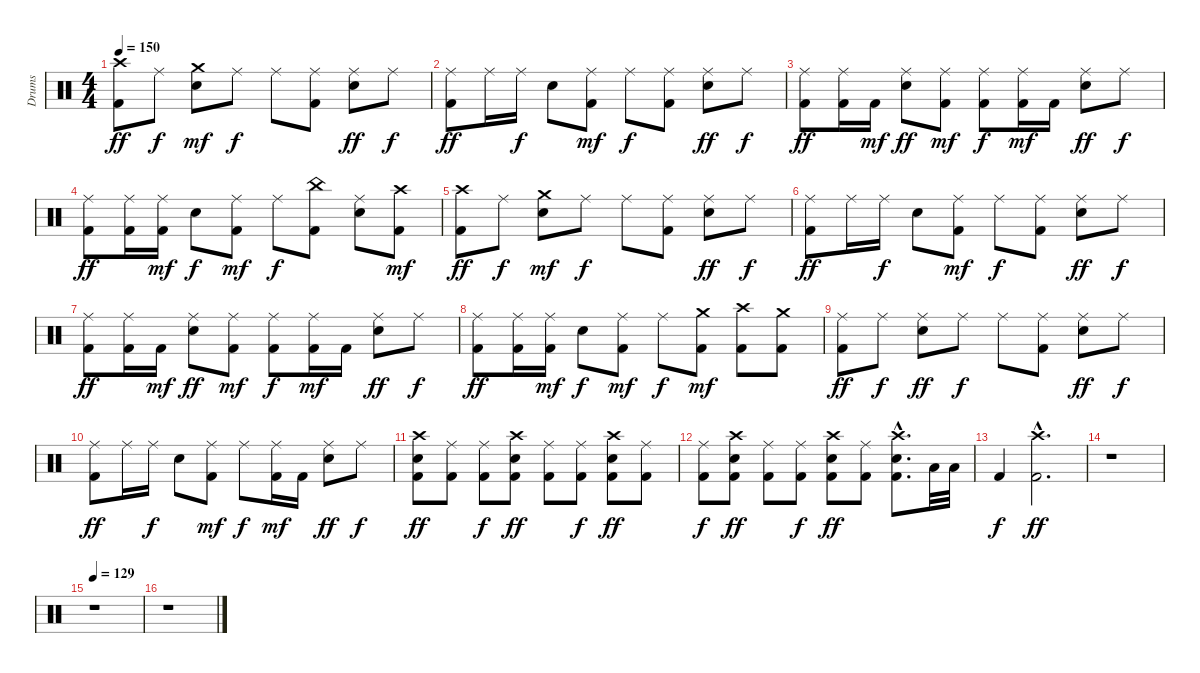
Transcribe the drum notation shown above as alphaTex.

\track ("Drums" "Drums") {instrument percussion}
\staff {score}
\articulation defaults
\ts (4 4)
\tempo 150
\clef neutral
\ks c
("Crash high (hit)" "Kick (hit) 2").8{dy ff} "Ride (middle)".8{dy f} ("Crash medium (hit)" "Snare (hit) 2").8{dy mf} "Ride (middle)".8{dy f} "Ride (middle)".8 ("Ride (middle)" "Kick (hit) 2").8 ("Ride (middle)" "Snare (hit) 2").8{dy ff} "Ride (middle)".8{dy f} |
("Ride (middle)" "Kick (hit) 2").8{dy ff} "Ride (middle)".16 "Ride (middle)".16{dy f} "Snare (hit) 2".8 ("Ride (middle)" "Kick (hit) 2").8{dy mf} "Ride (middle)".8{dy f} ("Ride (middle)" "Kick (hit) 2").8 ("Ride (middle)" "Snare (hit) 2").8{dy ff} "Ride (middle)".8{dy f} |
("Ride (middle)" "Kick (hit) 2").8{dy ff} ("Kick (hit) 2" "Ride (middle)").16 "Kick (hit) 2".16{dy mf} ("Ride (middle)" "Snare (hit) 2").8{dy ff} ("Kick (hit) 2" "Ride (middle)").8{dy mf} ("Kick (hit) 2" "Ride (middle)").8{dy f} ("Ride (middle)" "Kick (hit) 2").16{dy mf} "Kick (hit) 2".16 ("Ride (middle)" "Snare (hit) 2").8{dy ff} "Ride (middle)".8{dy f} |
("Ride (middle)" "Kick (hit) 2").8{dy ff} ("Kick (hit) 2" "Ride (middle)").16 ("Kick (hit) 2" "Ride (middle)").16{dy mf} "Snare (hit) 2".8{dy f} ("Ride (middle)" "Kick (hit) 2").8{dy mf} "Ride (middle)".8{dy f} ("China (hit)" "Kick (hit) 2").8 ("Ride (middle)" "Snare (hit) 2").8 ("Crash high (hit)" "Kick (hit) 2").8{dy mf} |
("Crash high (hit)" "Kick (hit) 2").8{dy ff} "Ride (middle)".8{dy f} ("Crash medium (hit)" "Snare (hit) 2").8{dy mf} "Ride (middle)".8{dy f} "Ride (middle)".8 ("Ride (middle)" "Kick (hit) 2").8 ("Ride (middle)" "Snare (hit) 2").8{dy ff} "Ride (middle)".8{dy f} |
("Ride (middle)" "Kick (hit) 2").8{dy ff} "Ride (middle)".16 "Ride (middle)".16{dy f} "Snare (hit) 2".8 ("Ride (middle)" "Kick (hit) 2").8{dy mf} "Ride (middle)".8{dy f} ("Ride (middle)" "Kick (hit) 2").8 ("Ride (middle)" "Snare (hit) 2").8{dy ff} "Ride (middle)".8{dy f} |
("Ride (middle)" "Kick (hit) 2").8{dy ff} ("Kick (hit) 2" "Ride (middle)").16 "Kick (hit) 2".16{dy mf} ("Ride (middle)" "Snare (hit) 2").8{dy ff} ("Kick (hit) 2" "Ride (middle)").8{dy mf} ("Kick (hit) 2" "Ride (middle)").8{dy f} ("Ride (middle)" "Kick (hit) 2").16{dy mf} "Kick (hit) 2".16 ("Ride (middle)" "Snare (hit) 2").8{dy ff} "Ride (middle)".8{dy f} |
("Ride (middle)" "Kick (hit) 2").8{dy ff} ("Kick (hit) 2" "Ride (middle)").16 ("Kick (hit) 2" "Ride (middle)").16{dy mf} "Snare (hit) 2".8{dy f} ("Ride (middle)" "Kick (hit) 2").8{dy mf} "Ride (middle)".8{dy f} ("Crash medium (hit)" "Kick (hit) 2").8{dy mf} ("Crash high (hit)" "Kick (hit) 2").8 ("Crash medium (hit)" "Kick (hit) 2").8 |
("Ride (middle)" "Kick (hit) 2").8{dy ff} "Ride (middle)".8{dy f} ("Ride (middle)" "Snare (hit) 2").8{dy ff} "Ride (middle)".8{dy f} "Ride (middle)".8 ("Ride (middle)" "Kick (hit) 2").8 ("Ride (middle)" "Snare (hit) 2").8{dy ff} "Ride (middle)".8{dy f} |
("Ride (middle)" "Kick (hit) 2").8{dy ff} "Ride (middle)".16 "Ride (middle)".16{dy f} "Snare (hit) 2".8 ("Ride (middle)" "Kick (hit) 2").8{dy mf} "Ride (middle)".8{dy f} ("Ride (middle)" "Kick (hit) 2").16{dy mf} "Kick (hit) 2".16 ("Ride (middle)" "Snare (hit) 2").8{dy ff} "Ride (middle)".8{dy f} |
("Kick (hit) 2" "Crash high (hit)" "Snare (hit) 2").8{dy ff} ("Kick (hit) 2" "Ride (middle)").8 ("Kick (hit) 2" "Ride (middle)").8{dy f} ("Kick (hit) 2" "Crash high (hit)" "Snare (hit) 2").8{dy ff} ("Kick (hit) 2" "Ride (middle)").8 ("Kick (hit) 2" "Ride (middle)").8{dy f} ("Kick (hit) 2" "Crash high (hit)" "Snare (hit) 2").8{dy ff} ("Kick (hit) 2" "Ride (middle)").8 |
("Kick (hit) 2" "Ride (middle)").8{dy f} ("Kick (hit) 2" "Crash high (hit)" "Snare (hit) 2").8{dy ff} ("Kick (hit) 2" "Ride (middle)").8 ("Kick (hit) 2" "Ride (middle)").8{dy f} ("Kick (hit) 2" "Crash high (hit)" "Snare (hit) 2").8{dy ff} ("Kick (hit) 2" "Ride (middle)").8 ("Snare (hit) 2"{hac} "Crash high (hit)"{hac} "Kick (hit) 2"{hac}).8{d} "Low Tom (hit)".32 "Low Floor Tom (hit)".32 |
"Kick (hit) 2".4{dy f} ("Crash high (hit)"{hac} "Kick (hit) 2"{hac}).2{d dy ff} |
r.1 |
\tempo 129
r.1 |
r.1
